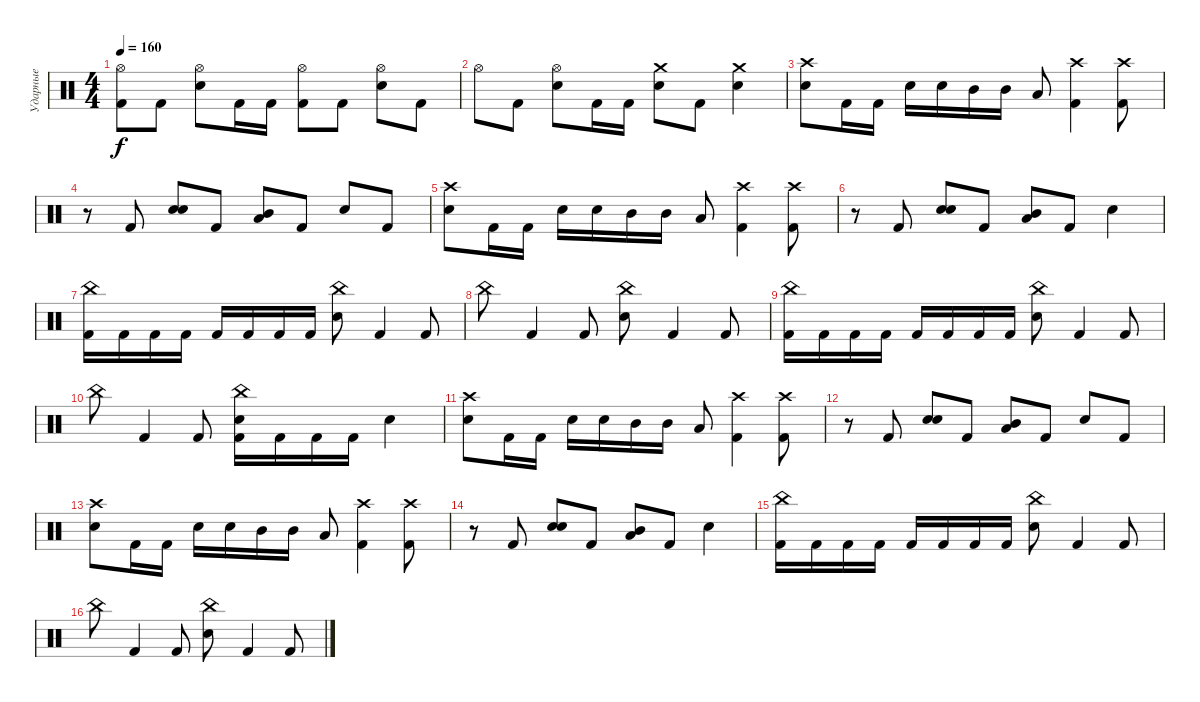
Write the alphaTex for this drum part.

\track ("Ударные" "Ударные") {instrument percussion}
\staff {score}
\articulation defaults
\ts (4 4)
\tempo 160
\clef neutral
\ks c
("Hi-Hat (open)" "Kick (hit) 2").8{dy f} "Kick (hit) 2".8 ("Hi-Hat (open)" "Snare (hit) 2").8 "Kick (hit) 2".16 "Kick (hit) 2".16 ("Hi-Hat (open)" "Kick (hit) 2").8 "Kick (hit) 2".8 ("Hi-Hat (open)" "Snare (hit) 2").8 "Kick (hit) 2".8 |
"Hi-Hat (open)".8 "Kick (hit) 2".8 ("Hi-Hat (open)" "Snare (hit) 2").8 "Kick (hit) 2".16 "Kick (hit) 2".16 ("Crash medium (hit)" "Snare (hit) 2").8 "Kick (hit) 2".8 ("Crash medium (hit)" "Snare (hit) 2").4 |
("Crash high (hit)" "Snare (hit) 2").8 "Kick (hit) 2".16 "Kick (hit) 2".16 "Snare (hit) 2".16 "Snare (hit) 2".16 "Mid Tom (hit)".16 "Mid Tom (hit)".16 "Low Tom (hit)".8 ("Crash high (hit)" "Kick (hit) 2").4 ("Crash high (hit)" "Kick (hit) 2").8 |
r.8 "Kick (hit) 2".8 ("Snare (hit) 2" "Snare (hit) 2").8 "Kick (hit) 2".8 ("Low Tom (hit)" "Mid Tom (hit)").8 "Kick (hit) 2".8 "Snare (hit) 2".8 "Kick (hit) 2".8 |
("Crash high (hit)" "Snare (hit) 2").8 "Kick (hit) 2".16 "Kick (hit) 2".16 "Snare (hit) 2".16 "Snare (hit) 2".16 "Mid Tom (hit)".16 "Mid Tom (hit)".16 "Low Tom (hit)".8 ("Crash high (hit)" "Kick (hit) 2").4 ("Crash high (hit)" "Kick (hit) 2").8 |
r.8 "Kick (hit) 2".8 ("Snare (hit) 2" "Snare (hit) 2").8 "Kick (hit) 2".8 ("Low Tom (hit)" "Mid Tom (hit)").8 "Kick (hit) 2".8 "Snare (hit) 2".4 |
("China (hit)" "Kick (hit) 2").16 "Kick (hit) 2".16 "Kick (hit) 2".16 "Kick (hit) 2".16 "Kick (hit) 2".16 "Kick (hit) 2".16 "Kick (hit) 2".16 "Kick (hit) 2".16 ("China (hit)" "Snare (hit) 2").8 "Kick (hit) 2".4 "Kick (hit) 2".8 |
"China (hit)".8 "Kick (hit) 2".4 "Kick (hit) 2".8 ("China (hit)" "Snare (hit) 2").8 "Kick (hit) 2".4 "Kick (hit) 2".8 |
("China (hit)" "Kick (hit) 2").16 "Kick (hit) 2".16 "Kick (hit) 2".16 "Kick (hit) 2".16 "Kick (hit) 2".16 "Kick (hit) 2".16 "Kick (hit) 2".16 "Kick (hit) 2".16 ("China (hit)" "Snare (hit) 2").8 "Kick (hit) 2".4 "Kick (hit) 2".8 |
"China (hit)".8 "Kick (hit) 2".4 "Kick (hit) 2".8 ("China (hit)" "Snare (hit) 2" "Kick (hit) 2").16 "Kick (hit) 2".16 "Kick (hit) 2".16 "Kick (hit) 2".16 "Snare (hit) 2".4 |
("Crash high (hit)" "Snare (hit) 2").8 "Kick (hit) 2".16 "Kick (hit) 2".16 "Snare (hit) 2".16 "Snare (hit) 2".16 "Mid Tom (hit)".16 "Mid Tom (hit)".16 "Low Tom (hit)".8 ("Crash high (hit)" "Kick (hit) 2").4 ("Crash high (hit)" "Kick (hit) 2").8 |
r.8 "Kick (hit) 2".8 ("Snare (hit) 2" "Snare (hit) 2").8 "Kick (hit) 2".8 ("Low Tom (hit)" "Mid Tom (hit)").8 "Kick (hit) 2".8 "Snare (hit) 2".8 "Kick (hit) 2".8 |
("Crash high (hit)" "Snare (hit) 2").8 "Kick (hit) 2".16 "Kick (hit) 2".16 "Snare (hit) 2".16 "Snare (hit) 2".16 "Mid Tom (hit)".16 "Mid Tom (hit)".16 "Low Tom (hit)".8 ("Crash high (hit)" "Kick (hit) 2").4 ("Crash high (hit)" "Kick (hit) 2").8 |
r.8 "Kick (hit) 2".8 ("Snare (hit) 2" "Snare (hit) 2").8 "Kick (hit) 2".8 ("Low Tom (hit)" "Mid Tom (hit)").8 "Kick (hit) 2".8 "Snare (hit) 2".4 |
("China (hit)" "Kick (hit) 2").16 "Kick (hit) 2".16 "Kick (hit) 2".16 "Kick (hit) 2".16 "Kick (hit) 2".16 "Kick (hit) 2".16 "Kick (hit) 2".16 "Kick (hit) 2".16 ("China (hit)" "Snare (hit) 2").8 "Kick (hit) 2".4 "Kick (hit) 2".8 |
"China (hit)".8 "Kick (hit) 2".4 "Kick (hit) 2".8 ("China (hit)" "Snare (hit) 2").8 "Kick (hit) 2".4 "Kick (hit) 2".8
